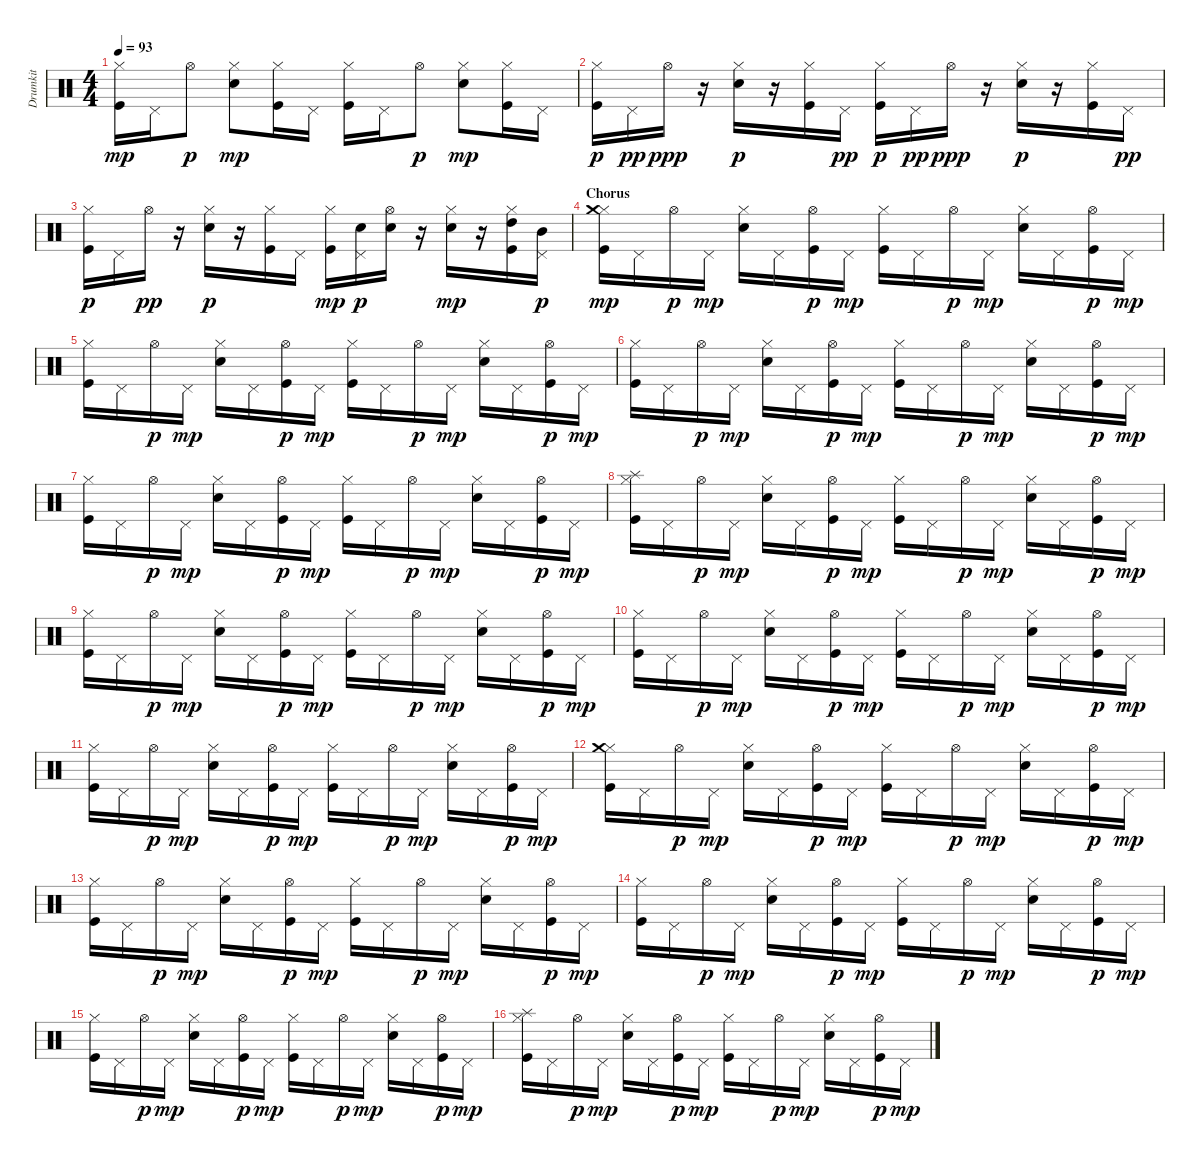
\track ("Drumkit" "Drumkit") {instrument percussion}
\staff {score}
\articulation defaults
\ts (4 4)
\tempo 93
\clef neutral
\ks c
("Hi-Hat (closed)" "Kick (hit)").16{dy mp} "Pedal Hi-Hat (hit)".16 "Hi-Hat (open)".8{dy p} ("Hi-Hat (closed)" "Snare (hit) 2").8{dy mp} ("Hi-Hat (closed)" "Kick (hit)").16 "Pedal Hi-Hat (hit)".16 ("Hi-Hat (closed)" "Kick (hit)").16 "Pedal Hi-Hat (hit)".16 "Hi-Hat (open)".8{dy p} ("Hi-Hat (closed)" "Snare (hit) 2").8{dy mp} ("Hi-Hat (closed)" "Kick (hit)").16 "Pedal Hi-Hat (hit)".16 |
("Hi-Hat (closed)" "Kick (hit)").16{dy p} "Pedal Hi-Hat (hit)".16{dy pp} "Hi-Hat (open)".16{dy ppp} r.16 ("Hi-Hat (closed)" "Snare (hit) 2").16{dy p} r.16 ("Hi-Hat (closed)" "Kick (hit)").16 "Pedal Hi-Hat (hit)".16{dy pp} ("Hi-Hat (closed)" "Kick (hit)").16{dy p} "Pedal Hi-Hat (hit)".16{dy pp} "Hi-Hat (open)".16{dy ppp} r.16 ("Hi-Hat (closed)" "Snare (hit) 2").16{dy p} r.16 ("Hi-Hat (closed)" "Kick (hit)").16 "Pedal Hi-Hat (hit)".16{dy pp} |
("Hi-Hat (closed)" "Kick (hit)").16{dy p} "Pedal Hi-Hat (hit)".16 "Hi-Hat (open)".16{dy pp} r.16 ("Hi-Hat (closed)" "Snare (hit) 2").16{dy p} r.16 ("Hi-Hat (closed)" "Kick (hit)").16 "Pedal Hi-Hat (hit)".16 ("Hi-Hat (closed)" "Kick (hit)").16{dy mp} ("Pedal Hi-Hat (hit)" "Snare (hit) 2").16{dy p} ("Hi-Hat (open)" "Snare (hit) 2").16 r.16 ("Hi-Hat (closed)" "Snare (hit) 2").16{dy mp} r.16 ("Hi-Hat (closed)" "High Tom (hit)" "Kick (hit)").16 ("Pedal Hi-Hat (hit)" "Mid Tom (hit)").16{dy p} |
\section ("" "Chorus")
("Hi-Hat (closed)" "Crash medium (hit)" "Kick (hit)").16{dy mp} "Pedal Hi-Hat (hit)".16 "Hi-Hat (open)".16{dy p} "Pedal Hi-Hat (hit)".16{dy mp} ("Hi-Hat (closed)" "Snare (hit) 2").16 "Pedal Hi-Hat (hit)".16 ("Hi-Hat (open)" "Kick (hit)").16{dy p} "Pedal Hi-Hat (hit)".16{dy mp} ("Hi-Hat (closed)" "Kick (hit)").16 "Pedal Hi-Hat (hit)".16 "Hi-Hat (open)".16{dy p} "Pedal Hi-Hat (hit)".16{dy mp} ("Hi-Hat (closed)" "Snare (hit) 2").16 "Pedal Hi-Hat (hit)".16 ("Hi-Hat (open)" "Kick (hit)").16{dy p} "Pedal Hi-Hat (hit)".16{dy mp} |
("Hi-Hat (closed)" "Kick (hit)").16 "Pedal Hi-Hat (hit)".16 "Hi-Hat (open)".16{dy p} "Pedal Hi-Hat (hit)".16{dy mp} ("Hi-Hat (closed)" "Snare (hit) 2").16 "Pedal Hi-Hat (hit)".16 ("Hi-Hat (open)" "Kick (hit)").16{dy p} "Pedal Hi-Hat (hit)".16{dy mp} ("Hi-Hat (closed)" "Kick (hit)").16 "Pedal Hi-Hat (hit)".16 "Hi-Hat (open)".16{dy p} "Pedal Hi-Hat (hit)".16{dy mp} ("Hi-Hat (closed)" "Snare (hit) 2").16 "Pedal Hi-Hat (hit)".16 ("Hi-Hat (open)" "Kick (hit)").16{dy p} "Pedal Hi-Hat (hit)".16{dy mp} |
("Hi-Hat (closed)" "Kick (hit)").16 "Pedal Hi-Hat (hit)".16 "Hi-Hat (open)".16{dy p} "Pedal Hi-Hat (hit)".16{dy mp} ("Hi-Hat (closed)" "Snare (hit) 2").16 "Pedal Hi-Hat (hit)".16 ("Hi-Hat (open)" "Kick (hit)").16{dy p} "Pedal Hi-Hat (hit)".16{dy mp} ("Hi-Hat (closed)" "Kick (hit)").16 "Pedal Hi-Hat (hit)".16 "Hi-Hat (open)".16{dy p} "Pedal Hi-Hat (hit)".16{dy mp} ("Hi-Hat (closed)" "Snare (hit) 2").16 "Pedal Hi-Hat (hit)".16 ("Hi-Hat (open)" "Kick (hit)").16{dy p} "Pedal Hi-Hat (hit)".16{dy mp} |
("Hi-Hat (closed)" "Kick (hit)").16 "Pedal Hi-Hat (hit)".16 "Hi-Hat (open)".16{dy p} "Pedal Hi-Hat (hit)".16{dy mp} ("Hi-Hat (closed)" "Snare (hit) 2").16 "Pedal Hi-Hat (hit)".16 ("Hi-Hat (open)" "Kick (hit)").16{dy p} "Pedal Hi-Hat (hit)".16{dy mp} ("Hi-Hat (closed)" "Kick (hit)").16 "Pedal Hi-Hat (hit)".16 "Hi-Hat (open)".16{dy p} "Pedal Hi-Hat (hit)".16{dy mp} ("Hi-Hat (closed)" "Snare (hit) 2").16 "Pedal Hi-Hat (hit)".16 ("Hi-Hat (open)" "Kick (hit)").16{dy p} "Pedal Hi-Hat (hit)".16{dy mp} |
("Hi-Hat (closed)" "Splash (hit)" "Kick (hit)").16 "Pedal Hi-Hat (hit)".16 "Hi-Hat (open)".16{dy p} "Pedal Hi-Hat (hit)".16{dy mp} ("Hi-Hat (closed)" "Snare (hit) 2").16 "Pedal Hi-Hat (hit)".16 ("Hi-Hat (open)" "Kick (hit)").16{dy p} "Pedal Hi-Hat (hit)".16{dy mp} ("Hi-Hat (closed)" "Kick (hit)").16 "Pedal Hi-Hat (hit)".16 "Hi-Hat (open)".16{dy p} "Pedal Hi-Hat (hit)".16{dy mp} ("Hi-Hat (closed)" "Snare (hit) 2").16 "Pedal Hi-Hat (hit)".16 ("Hi-Hat (open)" "Kick (hit)").16{dy p} "Pedal Hi-Hat (hit)".16{dy mp} |
("Hi-Hat (closed)" "Kick (hit)").16 "Pedal Hi-Hat (hit)".16 "Hi-Hat (open)".16{dy p} "Pedal Hi-Hat (hit)".16{dy mp} ("Hi-Hat (closed)" "Snare (hit) 2").16 "Pedal Hi-Hat (hit)".16 ("Hi-Hat (open)" "Kick (hit)").16{dy p} "Pedal Hi-Hat (hit)".16{dy mp} ("Hi-Hat (closed)" "Kick (hit)").16 "Pedal Hi-Hat (hit)".16 "Hi-Hat (open)".16{dy p} "Pedal Hi-Hat (hit)".16{dy mp} ("Hi-Hat (closed)" "Snare (hit) 2").16 "Pedal Hi-Hat (hit)".16 ("Hi-Hat (open)" "Kick (hit)").16{dy p} "Pedal Hi-Hat (hit)".16{dy mp} |
("Hi-Hat (closed)" "Kick (hit)").16 "Pedal Hi-Hat (hit)".16 "Hi-Hat (open)".16{dy p} "Pedal Hi-Hat (hit)".16{dy mp} ("Hi-Hat (closed)" "Snare (hit) 2").16 "Pedal Hi-Hat (hit)".16 ("Hi-Hat (open)" "Kick (hit)").16{dy p} "Pedal Hi-Hat (hit)".16{dy mp} ("Hi-Hat (closed)" "Kick (hit)").16 "Pedal Hi-Hat (hit)".16 "Hi-Hat (open)".16{dy p} "Pedal Hi-Hat (hit)".16{dy mp} ("Hi-Hat (closed)" "Snare (hit) 2").16 "Pedal Hi-Hat (hit)".16 ("Hi-Hat (open)" "Kick (hit)").16{dy p} "Pedal Hi-Hat (hit)".16{dy mp} |
("Hi-Hat (closed)" "Kick (hit)").16 "Pedal Hi-Hat (hit)".16 "Hi-Hat (open)".16{dy p} "Pedal Hi-Hat (hit)".16{dy mp} ("Hi-Hat (closed)" "Snare (hit) 2").16 "Pedal Hi-Hat (hit)".16 ("Hi-Hat (open)" "Kick (hit)").16{dy p} "Pedal Hi-Hat (hit)".16{dy mp} ("Hi-Hat (closed)" "Kick (hit)").16 "Pedal Hi-Hat (hit)".16 "Hi-Hat (open)".16{dy p} "Pedal Hi-Hat (hit)".16{dy mp} ("Hi-Hat (closed)" "Snare (hit) 2").16 "Pedal Hi-Hat (hit)".16 ("Hi-Hat (open)" "Kick (hit)").16{dy p} "Pedal Hi-Hat (hit)".16{dy mp} |
("Hi-Hat (closed)" "Crash medium (hit)" "Kick (hit)").16 "Pedal Hi-Hat (hit)".16 "Hi-Hat (open)".16{dy p} "Pedal Hi-Hat (hit)".16{dy mp} ("Hi-Hat (closed)" "Snare (hit) 2").16 "Pedal Hi-Hat (hit)".16 ("Hi-Hat (open)" "Kick (hit)").16{dy p} "Pedal Hi-Hat (hit)".16{dy mp} ("Hi-Hat (closed)" "Kick (hit)").16 "Pedal Hi-Hat (hit)".16 "Hi-Hat (open)".16{dy p} "Pedal Hi-Hat (hit)".16{dy mp} ("Hi-Hat (closed)" "Snare (hit) 2").16 "Pedal Hi-Hat (hit)".16 ("Hi-Hat (open)" "Kick (hit)").16{dy p} "Pedal Hi-Hat (hit)".16{dy mp} |
("Hi-Hat (closed)" "Kick (hit)").16 "Pedal Hi-Hat (hit)".16 "Hi-Hat (open)".16{dy p} "Pedal Hi-Hat (hit)".16{dy mp} ("Hi-Hat (closed)" "Snare (hit) 2").16 "Pedal Hi-Hat (hit)".16 ("Hi-Hat (open)" "Kick (hit)").16{dy p} "Pedal Hi-Hat (hit)".16{dy mp} ("Hi-Hat (closed)" "Kick (hit)").16 "Pedal Hi-Hat (hit)".16 "Hi-Hat (open)".16{dy p} "Pedal Hi-Hat (hit)".16{dy mp} ("Hi-Hat (closed)" "Snare (hit) 2").16 "Pedal Hi-Hat (hit)".16 ("Hi-Hat (open)" "Kick (hit)").16{dy p} "Pedal Hi-Hat (hit)".16{dy mp} |
("Hi-Hat (closed)" "Kick (hit)").16 "Pedal Hi-Hat (hit)".16 "Hi-Hat (open)".16{dy p} "Pedal Hi-Hat (hit)".16{dy mp} ("Hi-Hat (closed)" "Snare (hit) 2").16 "Pedal Hi-Hat (hit)".16 ("Hi-Hat (open)" "Kick (hit)").16{dy p} "Pedal Hi-Hat (hit)".16{dy mp} ("Hi-Hat (closed)" "Kick (hit)").16 "Pedal Hi-Hat (hit)".16 "Hi-Hat (open)".16{dy p} "Pedal Hi-Hat (hit)".16{dy mp} ("Hi-Hat (closed)" "Snare (hit) 2").16 "Pedal Hi-Hat (hit)".16 ("Hi-Hat (open)" "Kick (hit)").16{dy p} "Pedal Hi-Hat (hit)".16{dy mp} |
("Hi-Hat (closed)" "Kick (hit)").16 "Pedal Hi-Hat (hit)".16 "Hi-Hat (open)".16{dy p} "Pedal Hi-Hat (hit)".16{dy mp} ("Hi-Hat (closed)" "Snare (hit) 2").16 "Pedal Hi-Hat (hit)".16 ("Hi-Hat (open)" "Kick (hit)").16{dy p} "Pedal Hi-Hat (hit)".16{dy mp} ("Hi-Hat (closed)" "Kick (hit)").16 "Pedal Hi-Hat (hit)".16 "Hi-Hat (open)".16{dy p} "Pedal Hi-Hat (hit)".16{dy mp} ("Hi-Hat (closed)" "Snare (hit) 2").16 "Pedal Hi-Hat (hit)".16 ("Hi-Hat (open)" "Kick (hit)").16{dy p} "Pedal Hi-Hat (hit)".16{dy mp} |
("Hi-Hat (closed)" "Splash (hit)" "Kick (hit)").16 "Pedal Hi-Hat (hit)".16 "Hi-Hat (open)".16{dy p} "Pedal Hi-Hat (hit)".16{dy mp} ("Hi-Hat (closed)" "Snare (hit) 2").16 "Pedal Hi-Hat (hit)".16 ("Hi-Hat (open)" "Kick (hit)").16{dy p} "Pedal Hi-Hat (hit)".16{dy mp} ("Hi-Hat (closed)" "Kick (hit)").16 "Pedal Hi-Hat (hit)".16 "Hi-Hat (open)".16{dy p} "Pedal Hi-Hat (hit)".16{dy mp} ("Hi-Hat (closed)" "Snare (hit) 2").16 "Pedal Hi-Hat (hit)".16 ("Hi-Hat (open)" "Kick (hit)").16{dy p} "Pedal Hi-Hat (hit)".16{dy mp}
